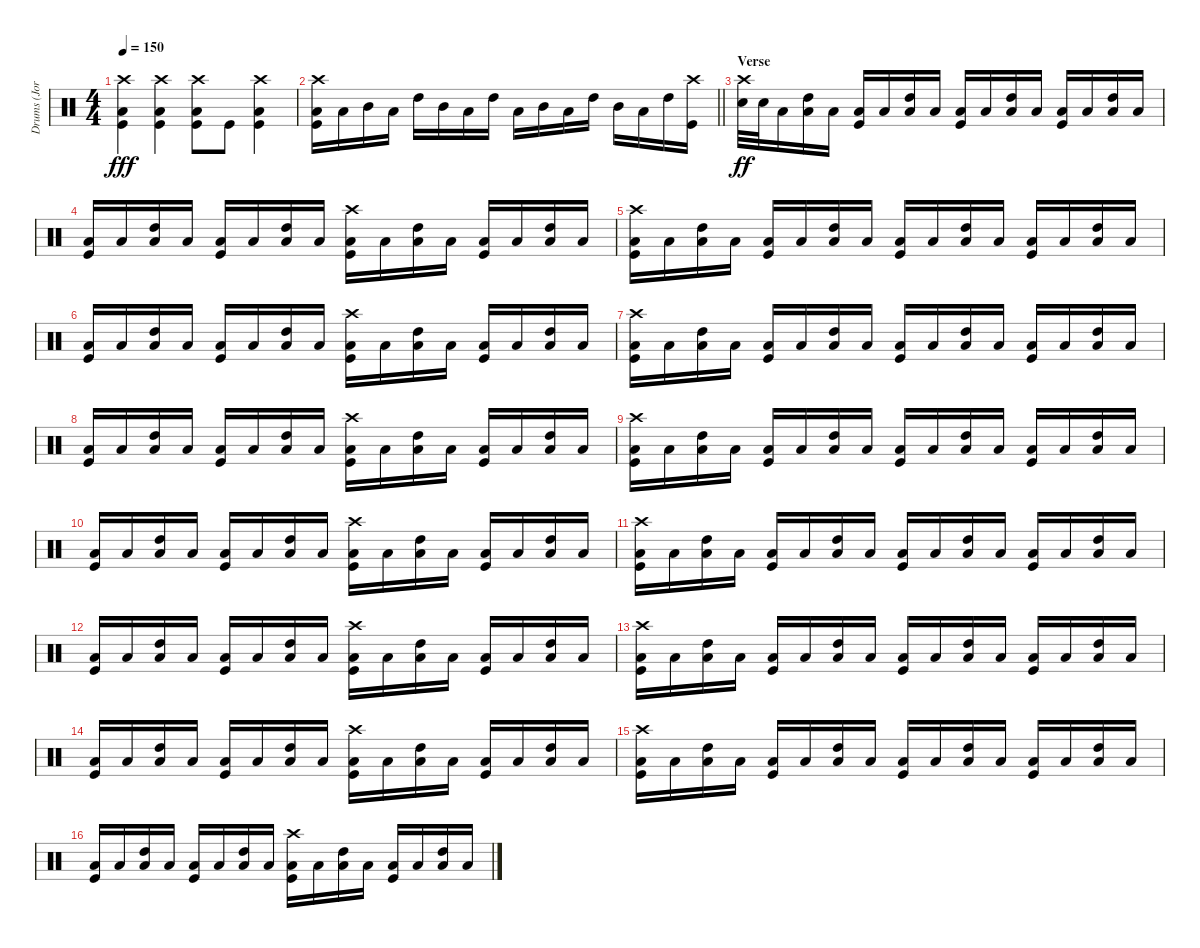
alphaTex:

\track ("Drums (Jordan Hastings)" "Drums (Jor") {instrument percussion}
\staff {score}
\articulation defaults
\ts (4 4)
\tempo 150
\clef neutral
\ks c
("Crash high (hit)" "Low Floor Tom (hit)" "Kick (hit)").4{dy fff} ("Crash high (hit)" "Low Floor Tom (hit)" "Kick (hit)").4 ("Crash high (hit)" "Low Floor Tom (hit)" "Kick (hit)").8 "Kick (hit)".8 ("Crash high (hit)" "Low Floor Tom (hit)" "Kick (hit)").4 |
\barLineRight lightlight
("Crash high (hit)" "Low Floor Tom (hit)" "Kick (hit)").16 "Low Tom (hit)".16 "Mid Tom (hit)".16 "Low Tom (hit)".16 "High Tom (hit)".16 "Mid Tom (hit)".16 "Low Tom (hit)".16 "High Tom (hit)".16 "Low Tom (hit)".16 "Mid Tom (hit)".16 "Low Tom (hit)".16 "High Tom (hit)".16 "Mid Tom (hit)".16 "Low Tom (hit)".16 "High Tom (hit)".16 ("Crash high (hit)" "Kick (hit)").16 |
\section ("" "Verse")
("Crash high (hit)" "Snare (hit) 2").32{dy ff} "Snare (hit) 2".32 "Low Floor Tom (hit)".16 ("High Tom (hit)" "Low Floor Tom (hit)").16 "Low Floor Tom (hit)".16 ("Kick (hit)" "Low Floor Tom (hit)").16 "Low Floor Tom (hit)".16 ("High Tom (hit)" "Low Floor Tom (hit)").16 "Low Floor Tom (hit)".16 ("Kick (hit)" "Low Floor Tom (hit)").16 "Low Floor Tom (hit)".16 ("High Tom (hit)" "Low Floor Tom (hit)").16 "Low Floor Tom (hit)".16 ("Kick (hit)" "Low Floor Tom (hit)").16 "Low Floor Tom (hit)".16 ("High Tom (hit)" "Low Floor Tom (hit)").16 "Low Floor Tom (hit)".16 |
("Kick (hit)" "Low Floor Tom (hit)").16 "Low Floor Tom (hit)".16 ("High Tom (hit)" "Low Floor Tom (hit)").16 "Low Floor Tom (hit)".16 ("Kick (hit)" "Low Floor Tom (hit)").16 "Low Floor Tom (hit)".16 ("High Tom (hit)" "Low Floor Tom (hit)").16 "Low Floor Tom (hit)".16 ("Crash high (hit)" "Kick (hit)" "Low Floor Tom (hit)").16 "Low Floor Tom (hit)".16 ("High Tom (hit)" "Low Floor Tom (hit)").16 "Low Floor Tom (hit)".16 ("Kick (hit)" "Low Floor Tom (hit)").16 "Low Floor Tom (hit)".16 ("High Tom (hit)" "Low Floor Tom (hit)").16 "Low Floor Tom (hit)".16 |
("Crash high (hit)" "Kick (hit)" "Low Floor Tom (hit)").16 "Low Floor Tom (hit)".16 ("High Tom (hit)" "Low Floor Tom (hit)").16 "Low Floor Tom (hit)".16 ("Kick (hit)" "Low Floor Tom (hit)").16 "Low Floor Tom (hit)".16 ("High Tom (hit)" "Low Floor Tom (hit)").16 "Low Floor Tom (hit)".16 ("Kick (hit)" "Low Floor Tom (hit)").16 "Low Floor Tom (hit)".16 ("High Tom (hit)" "Low Floor Tom (hit)").16 "Low Floor Tom (hit)".16 ("Kick (hit)" "Low Floor Tom (hit)").16 "Low Floor Tom (hit)".16 ("High Tom (hit)" "Low Floor Tom (hit)").16 "Low Floor Tom (hit)".16 |
("Kick (hit)" "Low Floor Tom (hit)").16 "Low Floor Tom (hit)".16 ("High Tom (hit)" "Low Floor Tom (hit)").16 "Low Floor Tom (hit)".16 ("Kick (hit)" "Low Floor Tom (hit)").16 "Low Floor Tom (hit)".16 ("High Tom (hit)" "Low Floor Tom (hit)").16 "Low Floor Tom (hit)".16 ("Crash high (hit)" "Kick (hit)" "Low Floor Tom (hit)").16 "Low Floor Tom (hit)".16 ("High Tom (hit)" "Low Floor Tom (hit)").16 "Low Floor Tom (hit)".16 ("Kick (hit)" "Low Floor Tom (hit)").16 "Low Floor Tom (hit)".16 ("High Tom (hit)" "Low Floor Tom (hit)").16 "Low Floor Tom (hit)".16 |
("Crash high (hit)" "Kick (hit)" "Low Floor Tom (hit)").16 "Low Floor Tom (hit)".16 ("High Tom (hit)" "Low Floor Tom (hit)").16 "Low Floor Tom (hit)".16 ("Kick (hit)" "Low Floor Tom (hit)").16 "Low Floor Tom (hit)".16 ("High Tom (hit)" "Low Floor Tom (hit)").16 "Low Floor Tom (hit)".16 ("Kick (hit)" "Low Floor Tom (hit)").16 "Low Floor Tom (hit)".16 ("High Tom (hit)" "Low Floor Tom (hit)").16 "Low Floor Tom (hit)".16 ("Kick (hit)" "Low Floor Tom (hit)").16 "Low Floor Tom (hit)".16 ("High Tom (hit)" "Low Floor Tom (hit)").16 "Low Floor Tom (hit)".16 |
("Kick (hit)" "Low Floor Tom (hit)").16 "Low Floor Tom (hit)".16 ("High Tom (hit)" "Low Floor Tom (hit)").16 "Low Floor Tom (hit)".16 ("Kick (hit)" "Low Floor Tom (hit)").16 "Low Floor Tom (hit)".16 ("High Tom (hit)" "Low Floor Tom (hit)").16 "Low Floor Tom (hit)".16 ("Crash high (hit)" "Kick (hit)" "Low Floor Tom (hit)").16 "Low Floor Tom (hit)".16 ("High Tom (hit)" "Low Floor Tom (hit)").16 "Low Floor Tom (hit)".16 ("Kick (hit)" "Low Floor Tom (hit)").16 "Low Floor Tom (hit)".16 ("High Tom (hit)" "Low Floor Tom (hit)").16 "Low Floor Tom (hit)".16 |
("Crash high (hit)" "Kick (hit)" "Low Floor Tom (hit)").16 "Low Floor Tom (hit)".16 ("High Tom (hit)" "Low Floor Tom (hit)").16 "Low Floor Tom (hit)".16 ("Kick (hit)" "Low Floor Tom (hit)").16 "Low Floor Tom (hit)".16 ("High Tom (hit)" "Low Floor Tom (hit)").16 "Low Floor Tom (hit)".16 ("Kick (hit)" "Low Floor Tom (hit)").16 "Low Floor Tom (hit)".16 ("High Tom (hit)" "Low Floor Tom (hit)").16 "Low Floor Tom (hit)".16 ("Kick (hit)" "Low Floor Tom (hit)").16 "Low Floor Tom (hit)".16 ("High Tom (hit)" "Low Floor Tom (hit)").16 "Low Floor Tom (hit)".16 |
("Kick (hit)" "Low Floor Tom (hit)").16 "Low Floor Tom (hit)".16 ("High Tom (hit)" "Low Floor Tom (hit)").16 "Low Floor Tom (hit)".16 ("Kick (hit)" "Low Floor Tom (hit)").16 "Low Floor Tom (hit)".16 ("High Tom (hit)" "Low Floor Tom (hit)").16 "Low Floor Tom (hit)".16 ("Crash high (hit)" "Kick (hit)" "Low Floor Tom (hit)").16 "Low Floor Tom (hit)".16 ("High Tom (hit)" "Low Floor Tom (hit)").16 "Low Floor Tom (hit)".16 ("Kick (hit)" "Low Floor Tom (hit)").16 "Low Floor Tom (hit)".16 ("High Tom (hit)" "Low Floor Tom (hit)").16 "Low Floor Tom (hit)".16 |
("Crash high (hit)" "Kick (hit)" "Low Floor Tom (hit)").16 "Low Floor Tom (hit)".16 ("High Tom (hit)" "Low Floor Tom (hit)").16 "Low Floor Tom (hit)".16 ("Kick (hit)" "Low Floor Tom (hit)").16 "Low Floor Tom (hit)".16 ("High Tom (hit)" "Low Floor Tom (hit)").16 "Low Floor Tom (hit)".16 ("Kick (hit)" "Low Floor Tom (hit)").16 "Low Floor Tom (hit)".16 ("High Tom (hit)" "Low Floor Tom (hit)").16 "Low Floor Tom (hit)".16 ("Kick (hit)" "Low Floor Tom (hit)").16 "Low Floor Tom (hit)".16 ("High Tom (hit)" "Low Floor Tom (hit)").16 "Low Floor Tom (hit)".16 |
("Kick (hit)" "Low Floor Tom (hit)").16 "Low Floor Tom (hit)".16 ("High Tom (hit)" "Low Floor Tom (hit)").16 "Low Floor Tom (hit)".16 ("Kick (hit)" "Low Floor Tom (hit)").16 "Low Floor Tom (hit)".16 ("High Tom (hit)" "Low Floor Tom (hit)").16 "Low Floor Tom (hit)".16 ("Crash high (hit)" "Kick (hit)" "Low Floor Tom (hit)").16 "Low Floor Tom (hit)".16 ("High Tom (hit)" "Low Floor Tom (hit)").16 "Low Floor Tom (hit)".16 ("Kick (hit)" "Low Floor Tom (hit)").16 "Low Floor Tom (hit)".16 ("High Tom (hit)" "Low Floor Tom (hit)").16 "Low Floor Tom (hit)".16 |
("Crash high (hit)" "Kick (hit)" "Low Floor Tom (hit)").16 "Low Floor Tom (hit)".16 ("High Tom (hit)" "Low Floor Tom (hit)").16 "Low Floor Tom (hit)".16 ("Kick (hit)" "Low Floor Tom (hit)").16 "Low Floor Tom (hit)".16 ("High Tom (hit)" "Low Floor Tom (hit)").16 "Low Floor Tom (hit)".16 ("Kick (hit)" "Low Floor Tom (hit)").16 "Low Floor Tom (hit)".16 ("High Tom (hit)" "Low Floor Tom (hit)").16 "Low Floor Tom (hit)".16 ("Kick (hit)" "Low Floor Tom (hit)").16 "Low Floor Tom (hit)".16 ("High Tom (hit)" "Low Floor Tom (hit)").16 "Low Floor Tom (hit)".16 |
("Kick (hit)" "Low Floor Tom (hit)").16 "Low Floor Tom (hit)".16 ("High Tom (hit)" "Low Floor Tom (hit)").16 "Low Floor Tom (hit)".16 ("Kick (hit)" "Low Floor Tom (hit)").16 "Low Floor Tom (hit)".16 ("High Tom (hit)" "Low Floor Tom (hit)").16 "Low Floor Tom (hit)".16 ("Crash high (hit)" "Kick (hit)" "Low Floor Tom (hit)").16 "Low Floor Tom (hit)".16 ("High Tom (hit)" "Low Floor Tom (hit)").16 "Low Floor Tom (hit)".16 ("Kick (hit)" "Low Floor Tom (hit)").16 "Low Floor Tom (hit)".16 ("High Tom (hit)" "Low Floor Tom (hit)").16 "Low Floor Tom (hit)".16 |
("Crash high (hit)" "Kick (hit)" "Low Floor Tom (hit)").16 "Low Floor Tom (hit)".16 ("High Tom (hit)" "Low Floor Tom (hit)").16 "Low Floor Tom (hit)".16 ("Kick (hit)" "Low Floor Tom (hit)").16 "Low Floor Tom (hit)".16 ("High Tom (hit)" "Low Floor Tom (hit)").16 "Low Floor Tom (hit)".16 ("Kick (hit)" "Low Floor Tom (hit)").16 "Low Floor Tom (hit)".16 ("High Tom (hit)" "Low Floor Tom (hit)").16 "Low Floor Tom (hit)".16 ("Kick (hit)" "Low Floor Tom (hit)").16 "Low Floor Tom (hit)".16 ("High Tom (hit)" "Low Floor Tom (hit)").16 "Low Floor Tom (hit)".16 |
("Kick (hit)" "Low Floor Tom (hit)").16 "Low Floor Tom (hit)".16 ("High Tom (hit)" "Low Floor Tom (hit)").16 "Low Floor Tom (hit)".16 ("Kick (hit)" "Low Floor Tom (hit)").16 "Low Floor Tom (hit)".16 ("High Tom (hit)" "Low Floor Tom (hit)").16 "Low Floor Tom (hit)".16 ("Crash high (hit)" "Kick (hit)" "Low Floor Tom (hit)").16 "Low Floor Tom (hit)".16 ("High Tom (hit)" "Low Floor Tom (hit)").16 "Low Floor Tom (hit)".16 ("Kick (hit)" "Low Floor Tom (hit)").16 "Low Floor Tom (hit)".16 ("High Tom (hit)" "Low Floor Tom (hit)").16 "Low Floor Tom (hit)".16
